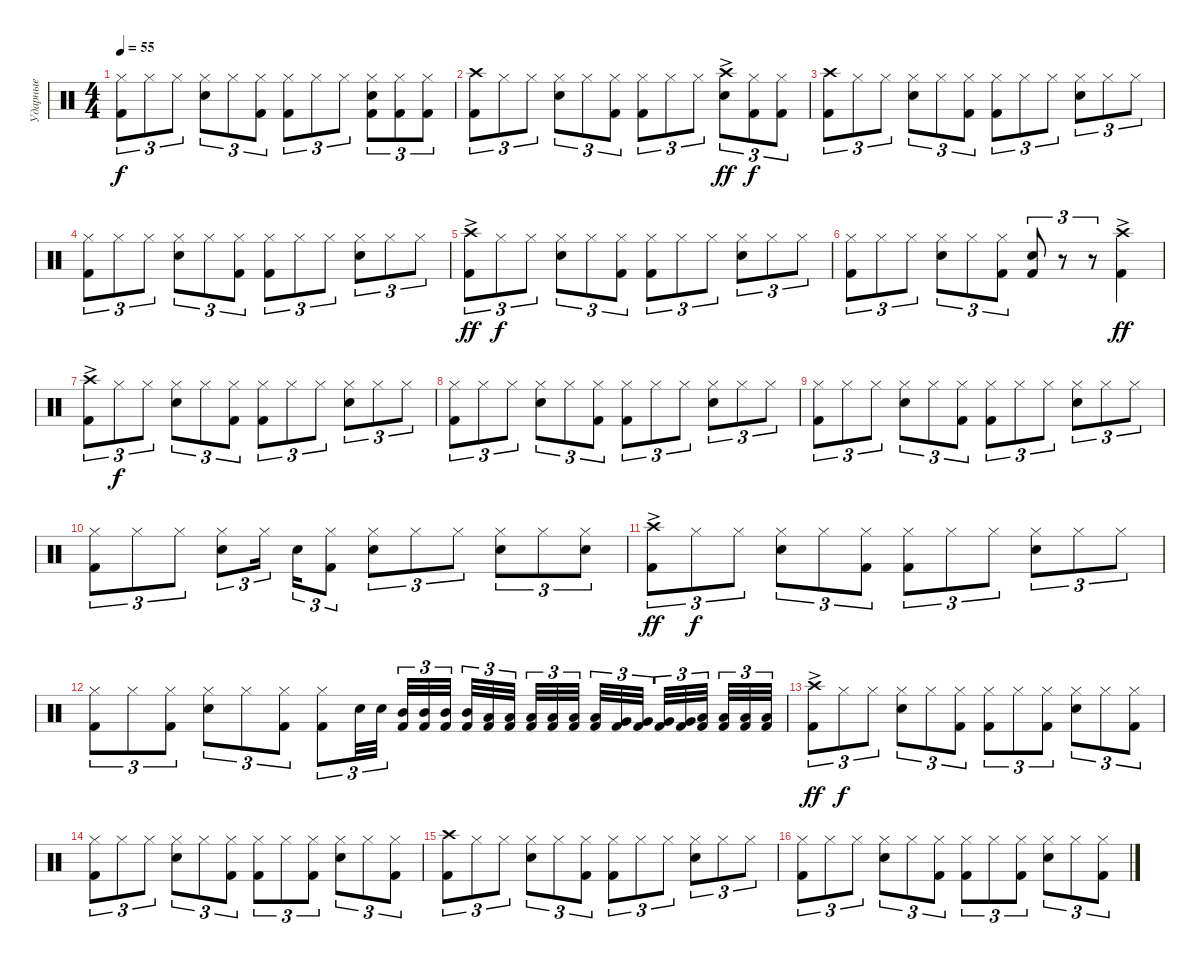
\track ("Ударные" "Ударные") {instrument percussion}
\staff
\articulation defaults
\ts (4 4)
\tempo 55
\clef neutral
\ks c
("Kick (hit) 2" "Hi-Hat (closed)").8{tu (3 2) dy f} "Hi-Hat (closed)".8{tu (3 2)} "Hi-Hat (closed)".8{tu (3 2)} ("Snare (hit) 2" "Hi-Hat (closed)").8{tu (3 2)} "Hi-Hat (closed)".8{tu (3 2)} ("Kick (hit) 2" "Hi-Hat (closed)").8{tu (3 2)} ("Kick (hit) 2" "Hi-Hat (closed)").8{tu (3 2)} "Hi-Hat (closed)".8{tu (3 2)} "Hi-Hat (closed)".8{tu (3 2)} ("Kick (hit) 2" "Snare (hit) 2" "Hi-Hat (closed)").8{tu (3 2)} ("Kick (hit) 2" "Hi-Hat (closed)").8{tu (3 2)} ("Kick (hit) 2" "Hi-Hat (closed)").8{tu (3 2)} |
("Kick (hit) 2" "Crash high (hit)").8{tu (3 2)} "Hi-Hat (closed)".8{tu (3 2)} "Hi-Hat (closed)".8{tu (3 2)} ("Snare (hit) 2" "Hi-Hat (closed)").8{tu (3 2)} "Hi-Hat (closed)".8{tu (3 2)} ("Kick (hit) 2" "Hi-Hat (closed)").8{tu (3 2)} ("Kick (hit) 2" "Hi-Hat (closed)").8{tu (3 2)} "Hi-Hat (closed)".8{tu (3 2)} "Hi-Hat (closed)".8{tu (3 2)} ("Snare (hit) 2" "Crash high (hit)"{ac}).8{tu (3 2) dy ff} ("Kick (hit) 2" "Hi-Hat (closed)").8{tu (3 2) dy f} ("Kick (hit) 2" "Hi-Hat (closed)").8{tu (3 2)} |
("Kick (hit) 2" "Crash high (hit)").8{tu (3 2)} "Hi-Hat (closed)".8{tu (3 2)} "Hi-Hat (closed)".8{tu (3 2)} ("Snare (hit) 2" "Hi-Hat (closed)").8{tu (3 2)} "Hi-Hat (closed)".8{tu (3 2)} ("Kick (hit) 2" "Hi-Hat (closed)").8{tu (3 2)} ("Kick (hit) 2" "Hi-Hat (closed)").8{tu (3 2)} "Hi-Hat (closed)".8{tu (3 2)} "Hi-Hat (closed)".8{tu (3 2)} ("Snare (hit) 2" "Hi-Hat (closed)").8{tu (3 2)} "Hi-Hat (closed)".8{tu (3 2)} "Hi-Hat (closed)".8{tu (3 2)} |
("Kick (hit) 2" "Hi-Hat (closed)").8{tu (3 2)} "Hi-Hat (closed)".8{tu (3 2)} "Hi-Hat (closed)".8{tu (3 2)} ("Snare (hit) 2" "Hi-Hat (closed)").8{tu (3 2)} "Hi-Hat (closed)".8{tu (3 2)} ("Kick (hit) 2" "Hi-Hat (closed)").8{tu (3 2)} ("Kick (hit) 2" "Hi-Hat (closed)").8{tu (3 2)} "Hi-Hat (closed)".8{tu (3 2)} "Hi-Hat (closed)".8{tu (3 2)} ("Snare (hit) 2" "Hi-Hat (closed)").8{tu (3 2)} "Hi-Hat (closed)".8{tu (3 2)} "Hi-Hat (closed)".8{tu (3 2)} |
("Kick (hit) 2" "Crash high (hit)"{ac}).8{tu (3 2) dy ff} "Hi-Hat (closed)".8{tu (3 2) dy f} "Hi-Hat (closed)".8{tu (3 2)} ("Snare (hit) 2" "Hi-Hat (closed)").8{tu (3 2)} "Hi-Hat (closed)".8{tu (3 2)} ("Kick (hit) 2" "Hi-Hat (closed)").8{tu (3 2)} ("Kick (hit) 2" "Hi-Hat (closed)").8{tu (3 2)} "Hi-Hat (closed)".8{tu (3 2)} "Hi-Hat (closed)".8{tu (3 2)} ("Snare (hit) 2" "Hi-Hat (closed)").8{tu (3 2)} "Hi-Hat (closed)".8{tu (3 2)} "Hi-Hat (closed)".8{tu (3 2)} |
("Kick (hit) 2" "Hi-Hat (closed)").8{tu (3 2)} "Hi-Hat (closed)".8{tu (3 2)} "Hi-Hat (closed)".8{tu (3 2)} ("Snare (hit) 2" "Hi-Hat (closed)").8{tu (3 2)} "Hi-Hat (closed)".8{tu (3 2)} ("Kick (hit) 2" "Hi-Hat (closed)").8{tu (3 2)} ("Kick (hit) 2" "Snare (hit) 2").8{tu (3 2)} r.8{tu (3 2)} r.8{tu (3 2)} ("Kick (hit) 2" "Crash high (hit)"{ac}).4{dy ff} |
("Kick (hit) 2" "Crash high (hit)"{ac}).8{tu (3 2)} "Hi-Hat (closed)".8{tu (3 2) dy f} "Hi-Hat (closed)".8{tu (3 2)} ("Snare (hit) 2" "Hi-Hat (closed)").8{tu (3 2)} "Hi-Hat (closed)".8{tu (3 2)} ("Kick (hit) 2" "Hi-Hat (closed)").8{tu (3 2)} ("Kick (hit) 2" "Hi-Hat (closed)").8{tu (3 2)} "Hi-Hat (closed)".8{tu (3 2)} "Hi-Hat (closed)".8{tu (3 2)} ("Snare (hit) 2" "Hi-Hat (closed)").8{tu (3 2)} "Hi-Hat (closed)".8{tu (3 2)} "Hi-Hat (closed)".8{tu (3 2)} |
("Kick (hit) 2" "Hi-Hat (closed)").8{tu (3 2)} "Hi-Hat (closed)".8{tu (3 2)} "Hi-Hat (closed)".8{tu (3 2)} ("Snare (hit) 2" "Hi-Hat (closed)").8{tu (3 2)} "Hi-Hat (closed)".8{tu (3 2)} ("Kick (hit) 2" "Hi-Hat (closed)").8{tu (3 2)} ("Kick (hit) 2" "Hi-Hat (closed)").8{tu (3 2)} "Hi-Hat (closed)".8{tu (3 2)} "Hi-Hat (closed)".8{tu (3 2)} ("Snare (hit) 2" "Hi-Hat (closed)").8{tu (3 2)} "Hi-Hat (closed)".8{tu (3 2)} "Hi-Hat (closed)".8{tu (3 2)} |
("Kick (hit) 2" "Hi-Hat (closed)").8{tu (3 2)} "Hi-Hat (closed)".8{tu (3 2)} "Hi-Hat (closed)".8{tu (3 2)} ("Snare (hit) 2" "Hi-Hat (closed)").8{tu (3 2)} "Hi-Hat (closed)".8{tu (3 2)} ("Kick (hit) 2" "Hi-Hat (closed)").8{tu (3 2)} ("Kick (hit) 2" "Hi-Hat (closed)").8{tu (3 2)} "Hi-Hat (closed)".8{tu (3 2)} "Hi-Hat (closed)".8{tu (3 2)} ("Snare (hit) 2" "Hi-Hat (closed)").8{tu (3 2)} "Hi-Hat (closed)".8{tu (3 2)} "Hi-Hat (closed)".8{tu (3 2)} |
("Kick (hit) 2" "Hi-Hat (closed)").8{tu (3 2)} "Hi-Hat (closed)".8{tu (3 2)} "Hi-Hat (closed)".8{tu (3 2)} ("Snare (hit) 2" "Hi-Hat (closed)").8{tu (3 2)} "Hi-Hat (closed)".16{tu (3 2) beam splitsecondary} "Snare (hit) 2".16{tu (3 2)} ("Kick (hit) 2" "Hi-Hat (closed)").8{tu (3 2)} ("Snare (hit) 2" "Hi-Hat (closed)").8{tu (3 2)} "Hi-Hat (closed)".8{tu (3 2)} "Hi-Hat (closed)".8{tu (3 2)} ("Snare (hit) 2" "Hi-Hat (closed)").8{tu (3 2)} "Hi-Hat (closed)".8{tu (3 2)} ("Snare (hit) 2" "Hi-Hat (closed)").8{tu (3 2)} |
("Kick (hit) 2" "Crash high (hit)"{ac}).8{tu (3 2) dy ff} "Hi-Hat (closed)".8{tu (3 2) dy f} "Hi-Hat (closed)".8{tu (3 2)} ("Snare (hit) 2" "Hi-Hat (closed)").8{tu (3 2)} "Hi-Hat (closed)".8{tu (3 2)} ("Kick (hit) 2" "Hi-Hat (closed)").8{tu (3 2)} ("Kick (hit) 2" "Hi-Hat (closed)").8{tu (3 2)} "Hi-Hat (closed)".8{tu (3 2)} "Hi-Hat (closed)".8{tu (3 2)} ("Snare (hit) 2" "Hi-Hat (closed)").8{tu (3 2)} "Hi-Hat (closed)".8{tu (3 2)} "Hi-Hat (closed)".8{tu (3 2)} |
("Kick (hit) 2" "Hi-Hat (closed)").8{tu (3 2)} "Hi-Hat (closed)".8{tu (3 2)} ("Kick (hit) 2" "Hi-Hat (closed)").8{tu (3 2)} ("Snare (hit) 2" "Hi-Hat (closed)").8{tu (3 2)} "Hi-Hat (closed)".8{tu (3 2)} ("Kick (hit) 2" "Hi-Hat (closed)").8{tu (3 2)} ("Kick (hit) 2" "Hi-Hat (closed)").8{tu (3 2)} "Snare (hit) 2".32{tu (3 2)} "Snare (hit) 2".32{tu (3 2) beam splitsecondary} ("Kick (hit) 2" "Mid Tom (hit)").32{tu (3 2)} ("Kick (hit) 2" "Mid Tom (hit)").32{tu (3 2)} ("Kick (hit) 2" "Mid Tom (hit)").32{tu (3 2) beam splitsecondary} ("Kick (hit) 2" "Mid Tom (hit)").32{tu (3 2)} ("Kick (hit) 2" "Low Tom (hit)").32{tu (3 2)} ("Kick (hit) 2" "Low Tom (hit)").32{tu (3 2)} ("Kick (hit) 2" "Low Tom (hit)").32{tu (3 2)} ("Kick (hit) 2" "Low Tom (hit)").32{tu (3 2)} ("Kick (hit) 2" "Low Tom (hit)").32{tu (3 2) beam splitsecondary} ("Kick (hit) 2" "Low Tom (hit)").32{tu (3 2)} ("Kick (hit) 2" "Very Low Tom (hit)").32{tu (3 2)} ("Kick (hit) 2" "Very Low Tom (hit)").32{tu (3 2) beam splitsecondary} ("Kick (hit) 2" "Very Low Tom (hit)").32{tu (3 2)} ("Kick (hit) 2" "Very Low Tom (hit)").32{tu (3 2)} ("Kick (hit) 2" "Low Floor Tom (hit)").32{tu (3 2) beam splitsecondary} ("Kick (hit) 2" "Low Floor Tom (hit)").32{tu (3 2)} ("Kick (hit) 2" "Low Floor Tom (hit)").32{tu (3 2)} ("Kick (hit) 2" "Low Floor Tom (hit)").32{tu (3 2)} |
("Kick (hit) 2" "Crash high (hit)"{ac}).8{tu (3 2) dy ff} "Hi-Hat (closed)".8{tu (3 2) dy f} "Hi-Hat (closed)".8{tu (3 2)} ("Snare (hit) 2" "Hi-Hat (closed)").8{tu (3 2)} "Hi-Hat (closed)".8{tu (3 2)} ("Kick (hit) 2" "Hi-Hat (closed)").8{tu (3 2)} ("Kick (hit) 2" "Hi-Hat (closed)").8{tu (3 2)} "Hi-Hat (closed)".8{tu (3 2)} ("Kick (hit) 2" "Hi-Hat (closed)").8{tu (3 2)} ("Snare (hit) 2" "Hi-Hat (closed)").8{tu (3 2)} "Hi-Hat (closed)".8{tu (3 2)} ("Kick (hit) 2" "Hi-Hat (closed)").8{tu (3 2)} |
("Kick (hit) 2" "Hi-Hat (closed)").8{tu (3 2)} "Hi-Hat (closed)".8{tu (3 2)} "Hi-Hat (closed)".8{tu (3 2)} ("Snare (hit) 2" "Hi-Hat (closed)").8{tu (3 2)} "Hi-Hat (closed)".8{tu (3 2)} ("Kick (hit) 2" "Hi-Hat (closed)").8{tu (3 2)} ("Kick (hit) 2" "Hi-Hat (closed)").8{tu (3 2)} "Hi-Hat (closed)".8{tu (3 2)} ("Kick (hit) 2" "Hi-Hat (closed)").8{tu (3 2)} ("Snare (hit) 2" "Hi-Hat (closed)").8{tu (3 2)} "Hi-Hat (closed)".8{tu (3 2)} ("Kick (hit) 2" "Hi-Hat (closed)").8{tu (3 2)} |
("Kick (hit) 2" "Crash high (hit)").8{tu (3 2)} "Hi-Hat (closed)".8{tu (3 2)} "Hi-Hat (closed)".8{tu (3 2)} ("Snare (hit) 2" "Hi-Hat (closed)").8{tu (3 2)} "Hi-Hat (closed)".8{tu (3 2)} ("Kick (hit) 2" "Hi-Hat (closed)").8{tu (3 2)} ("Kick (hit) 2" "Hi-Hat (closed)").8{tu (3 2)} "Hi-Hat (closed)".8{tu (3 2)} "Hi-Hat (closed)".8{tu (3 2)} ("Snare (hit) 2" "Hi-Hat (closed)").8{tu (3 2)} "Hi-Hat (closed)".8{tu (3 2)} "Hi-Hat (closed)".8{tu (3 2)} |
("Kick (hit) 2" "Hi-Hat (closed)").8{tu (3 2)} "Hi-Hat (closed)".8{tu (3 2)} "Hi-Hat (closed)".8{tu (3 2)} ("Snare (hit) 2" "Hi-Hat (closed)").8{tu (3 2)} "Hi-Hat (closed)".8{tu (3 2)} ("Kick (hit) 2" "Hi-Hat (closed)").8{tu (3 2)} ("Kick (hit) 2" "Hi-Hat (closed)").8{tu (3 2)} "Hi-Hat (closed)".8{tu (3 2)} ("Kick (hit) 2" "Hi-Hat (closed)").8{tu (3 2)} ("Snare (hit) 2" "Hi-Hat (closed)").8{tu (3 2)} "Hi-Hat (closed)".8{tu (3 2)} ("Kick (hit) 2" "Hi-Hat (closed)").8{tu (3 2)}
